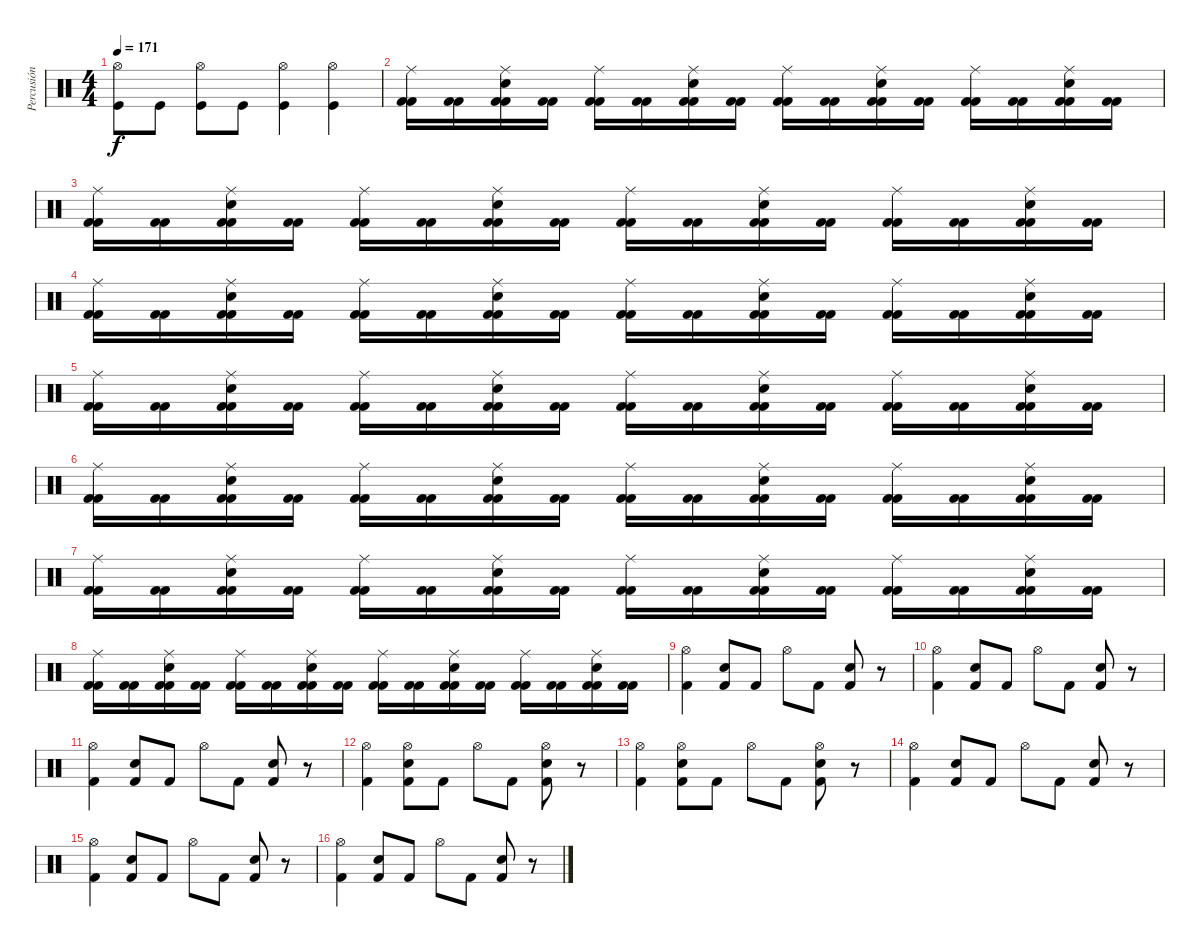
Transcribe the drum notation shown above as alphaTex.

\track ("Percusión" "Percusión") {instrument percussion}
\staff {score}
\articulation defaults
\ts (4 4)
\tempo 171
\clef neutral
\ks c
("Hi-Hat (open)" "Kick (hit)").8{dy f} "Kick (hit)".8 ("Hi-Hat (open)" "Kick (hit)").8 "Kick (hit)".8 ("Hi-Hat (open)" "Kick (hit)").4 ("Hi-Hat (open)" "Kick (hit)").4 |
("Kick (hit) 2" "Kick (hit) 2" "Ride (middle)").16 ("Kick (hit) 2" "Kick (hit) 2").16 ("Kick (hit) 2" "Kick (hit) 2" "Electric Snare (hit)" "Ride (middle)").16 ("Kick (hit) 2" "Kick (hit) 2").16 ("Kick (hit) 2" "Kick (hit) 2" "Ride (middle)").16 ("Kick (hit) 2" "Kick (hit) 2").16 ("Kick (hit) 2" "Kick (hit) 2" "Electric Snare (hit)" "Ride (middle)").16 ("Kick (hit) 2" "Kick (hit) 2").16 ("Kick (hit) 2" "Kick (hit) 2" "Ride (middle)").16 ("Kick (hit) 2" "Kick (hit) 2").16 ("Kick (hit) 2" "Kick (hit) 2" "Electric Snare (hit)" "Ride (middle)").16 ("Kick (hit) 2" "Kick (hit) 2").16 ("Kick (hit) 2" "Kick (hit) 2" "Ride (middle)").16 ("Kick (hit) 2" "Kick (hit) 2").16 ("Kick (hit) 2" "Kick (hit) 2" "Electric Snare (hit)" "Ride (middle)").16 ("Kick (hit) 2" "Kick (hit) 2").16 |
("Kick (hit) 2" "Kick (hit) 2" "Ride (middle)").16 ("Kick (hit) 2" "Kick (hit) 2").16 ("Kick (hit) 2" "Kick (hit) 2" "Electric Snare (hit)" "Ride (middle)").16 ("Kick (hit) 2" "Kick (hit) 2").16 ("Kick (hit) 2" "Kick (hit) 2" "Ride (middle)").16 ("Kick (hit) 2" "Kick (hit) 2").16 ("Kick (hit) 2" "Kick (hit) 2" "Electric Snare (hit)" "Ride (middle)").16 ("Kick (hit) 2" "Kick (hit) 2").16 ("Kick (hit) 2" "Kick (hit) 2" "Ride (middle)").16 ("Kick (hit) 2" "Kick (hit) 2").16 ("Kick (hit) 2" "Kick (hit) 2" "Electric Snare (hit)" "Ride (middle)").16 ("Kick (hit) 2" "Kick (hit) 2").16 ("Kick (hit) 2" "Kick (hit) 2" "Ride (middle)").16 ("Kick (hit) 2" "Kick (hit) 2").16 ("Kick (hit) 2" "Kick (hit) 2" "Electric Snare (hit)" "Ride (middle)").16 ("Kick (hit) 2" "Kick (hit) 2").16 |
("Kick (hit) 2" "Kick (hit) 2" "Ride (middle)").16 ("Kick (hit) 2" "Kick (hit) 2").16 ("Kick (hit) 2" "Kick (hit) 2" "Electric Snare (hit)" "Ride (middle)").16 ("Kick (hit) 2" "Kick (hit) 2").16 ("Kick (hit) 2" "Kick (hit) 2" "Ride (middle)").16 ("Kick (hit) 2" "Kick (hit) 2").16 ("Kick (hit) 2" "Kick (hit) 2" "Electric Snare (hit)" "Ride (middle)").16 ("Kick (hit) 2" "Kick (hit) 2").16 ("Kick (hit) 2" "Kick (hit) 2" "Ride (middle)").16 ("Kick (hit) 2" "Kick (hit) 2").16 ("Kick (hit) 2" "Kick (hit) 2" "Electric Snare (hit)" "Ride (middle)").16 ("Kick (hit) 2" "Kick (hit) 2").16 ("Kick (hit) 2" "Kick (hit) 2" "Ride (middle)").16 ("Kick (hit) 2" "Kick (hit) 2").16 ("Kick (hit) 2" "Kick (hit) 2" "Electric Snare (hit)" "Ride (middle)").16 ("Kick (hit) 2" "Kick (hit) 2").16 |
("Kick (hit) 2" "Kick (hit) 2" "Ride (middle)").16 ("Kick (hit) 2" "Kick (hit) 2").16 ("Kick (hit) 2" "Kick (hit) 2" "Electric Snare (hit)" "Ride (middle)").16 ("Kick (hit) 2" "Kick (hit) 2").16 ("Kick (hit) 2" "Kick (hit) 2" "Ride (middle)").16 ("Kick (hit) 2" "Kick (hit) 2").16 ("Kick (hit) 2" "Kick (hit) 2" "Electric Snare (hit)" "Ride (middle)").16 ("Kick (hit) 2" "Kick (hit) 2").16 ("Kick (hit) 2" "Kick (hit) 2" "Ride (middle)").16 ("Kick (hit) 2" "Kick (hit) 2").16 ("Kick (hit) 2" "Kick (hit) 2" "Electric Snare (hit)" "Ride (middle)").16 ("Kick (hit) 2" "Kick (hit) 2").16 ("Kick (hit) 2" "Kick (hit) 2" "Ride (middle)").16 ("Kick (hit) 2" "Kick (hit) 2").16 ("Kick (hit) 2" "Kick (hit) 2" "Electric Snare (hit)" "Ride (middle)").16 ("Kick (hit) 2" "Kick (hit) 2").16 |
("Kick (hit) 2" "Kick (hit) 2" "Ride (middle)").16 ("Kick (hit) 2" "Kick (hit) 2").16 ("Kick (hit) 2" "Kick (hit) 2" "Electric Snare (hit)" "Ride (middle)").16 ("Kick (hit) 2" "Kick (hit) 2").16 ("Kick (hit) 2" "Kick (hit) 2" "Ride (middle)").16 ("Kick (hit) 2" "Kick (hit) 2").16 ("Kick (hit) 2" "Kick (hit) 2" "Electric Snare (hit)" "Ride (middle)").16 ("Kick (hit) 2" "Kick (hit) 2").16 ("Kick (hit) 2" "Kick (hit) 2" "Ride (middle)").16 ("Kick (hit) 2" "Kick (hit) 2").16 ("Kick (hit) 2" "Kick (hit) 2" "Electric Snare (hit)" "Ride (middle)").16 ("Kick (hit) 2" "Kick (hit) 2").16 ("Kick (hit) 2" "Kick (hit) 2" "Ride (middle)").16 ("Kick (hit) 2" "Kick (hit) 2").16 ("Kick (hit) 2" "Kick (hit) 2" "Electric Snare (hit)" "Ride (middle)").16 ("Kick (hit) 2" "Kick (hit) 2").16 |
("Kick (hit) 2" "Kick (hit) 2" "Ride (middle)").16 ("Kick (hit) 2" "Kick (hit) 2").16 ("Kick (hit) 2" "Kick (hit) 2" "Electric Snare (hit)" "Ride (middle)").16 ("Kick (hit) 2" "Kick (hit) 2").16 ("Kick (hit) 2" "Kick (hit) 2" "Ride (middle)").16 ("Kick (hit) 2" "Kick (hit) 2").16 ("Kick (hit) 2" "Kick (hit) 2" "Electric Snare (hit)" "Ride (middle)").16 ("Kick (hit) 2" "Kick (hit) 2").16 ("Kick (hit) 2" "Kick (hit) 2" "Ride (middle)").16 ("Kick (hit) 2" "Kick (hit) 2").16 ("Kick (hit) 2" "Kick (hit) 2" "Electric Snare (hit)" "Ride (middle)").16 ("Kick (hit) 2" "Kick (hit) 2").16 ("Kick (hit) 2" "Kick (hit) 2" "Ride (middle)").16 ("Kick (hit) 2" "Kick (hit) 2").16 ("Kick (hit) 2" "Kick (hit) 2" "Electric Snare (hit)" "Ride (middle)").16 ("Kick (hit) 2" "Kick (hit) 2").16 |
("Kick (hit) 2" "Kick (hit) 2" "Ride (middle)").16 ("Kick (hit) 2" "Kick (hit) 2").16 ("Kick (hit) 2" "Kick (hit) 2" "Electric Snare (hit)" "Ride (middle)").16 ("Kick (hit) 2" "Kick (hit) 2").16 ("Kick (hit) 2" "Kick (hit) 2" "Ride (middle)").16 ("Kick (hit) 2" "Kick (hit) 2").16 ("Kick (hit) 2" "Kick (hit) 2" "Electric Snare (hit)" "Ride (middle)").16 ("Kick (hit) 2" "Kick (hit) 2").16 ("Kick (hit) 2" "Kick (hit) 2" "Ride (middle)").16 ("Kick (hit) 2" "Kick (hit) 2").16 ("Kick (hit) 2" "Kick (hit) 2" "Electric Snare (hit)" "Ride (middle)").16 ("Kick (hit) 2" "Kick (hit) 2").16 ("Kick (hit) 2" "Kick (hit) 2" "Ride (middle)").16 ("Kick (hit) 2" "Kick (hit) 2").16 ("Kick (hit) 2" "Kick (hit) 2" "Electric Snare (hit)" "Ride (middle)").16 ("Kick (hit) 2" "Kick (hit) 2").16 |
("Kick (hit) 2" "Hi-Hat (open)").4 ("Kick (hit) 2" "Electric Snare (hit)").8 "Kick (hit) 2".8 "Hi-Hat (open)".8 "Kick (hit) 2".8 ("Kick (hit) 2" "Electric Snare (hit)").8 r.8 |
("Kick (hit) 2" "Hi-Hat (open)").4 ("Kick (hit) 2" "Electric Snare (hit)").8 "Kick (hit) 2".8 "Hi-Hat (open)".8 "Kick (hit) 2".8 ("Kick (hit) 2" "Electric Snare (hit)").8 r.8 |
("Kick (hit) 2" "Hi-Hat (open)").4 ("Kick (hit) 2" "Electric Snare (hit)").8 "Kick (hit) 2".8 "Hi-Hat (open)".8 "Kick (hit) 2".8 ("Kick (hit) 2" "Electric Snare (hit)").8 r.8 |
("Kick (hit) 2" "Hi-Hat (open)").4 ("Kick (hit) 2" "Electric Snare (hit)" "Hi-Hat (open)").8 "Kick (hit) 2".8 "Hi-Hat (open)".8 "Kick (hit) 2".8 ("Kick (hit) 2" "Electric Snare (hit)" "Hi-Hat (open)").8 r.8 |
("Kick (hit) 2" "Hi-Hat (open)").4 ("Kick (hit) 2" "Electric Snare (hit)" "Hi-Hat (open)").8 "Kick (hit) 2".8 "Hi-Hat (open)".8 "Kick (hit) 2".8 ("Kick (hit) 2" "Electric Snare (hit)" "Hi-Hat (open)").8 r.8 |
("Kick (hit) 2" "Hi-Hat (open)").4 ("Kick (hit) 2" "Electric Snare (hit)").8 "Kick (hit) 2".8 "Hi-Hat (open)".8 "Kick (hit) 2".8 ("Kick (hit) 2" "Electric Snare (hit)").8 r.8 |
("Kick (hit) 2" "Hi-Hat (open)").4 ("Kick (hit) 2" "Electric Snare (hit)").8 "Kick (hit) 2".8 "Hi-Hat (open)".8 "Kick (hit) 2".8 ("Kick (hit) 2" "Electric Snare (hit)").8 r.8 |
("Kick (hit) 2" "Hi-Hat (open)").4 ("Kick (hit) 2" "Electric Snare (hit)").8 "Kick (hit) 2".8 "Hi-Hat (open)".8 "Kick (hit) 2".8 ("Kick (hit) 2" "Electric Snare (hit)").8 r.8
